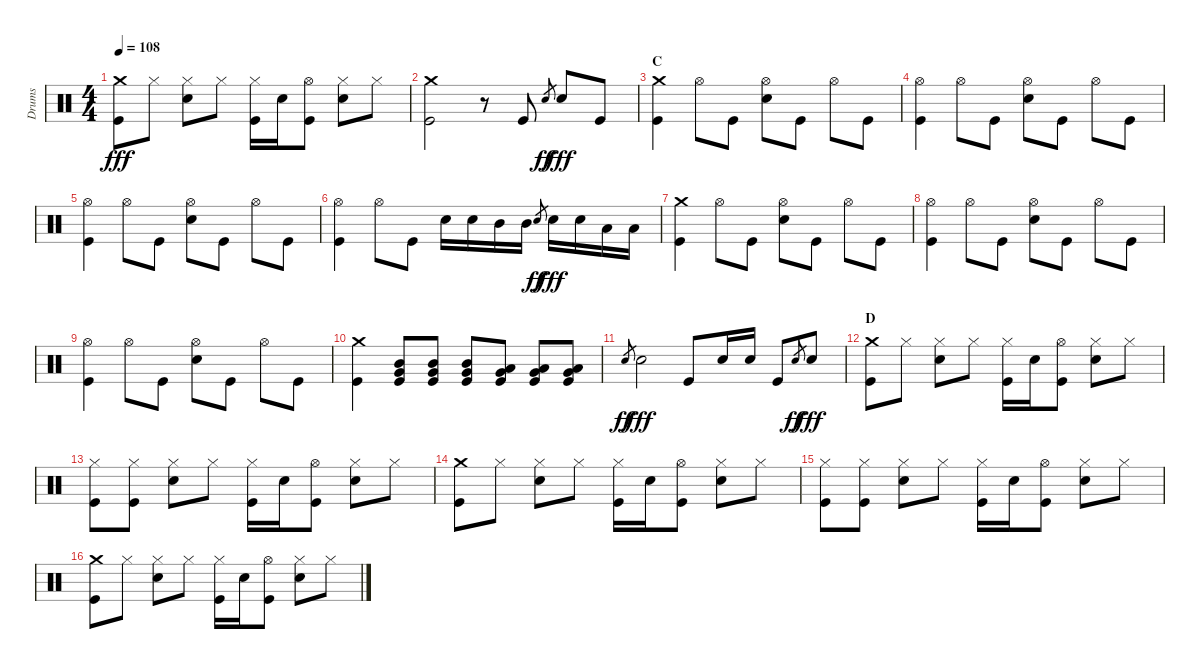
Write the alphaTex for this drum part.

\track ("Drums" "Drums") {instrument percussion}
\staff {score}
\articulation defaults
\ts (4 4)
\tempo 108
\clef neutral
\ks c
("Crash medium (hit)" "Kick (hit)").8{dy fff} "Hi-Hat (closed)".8 ("Hi-Hat (closed)" "Snare (hit) 2").8 "Hi-Hat (closed)".8 ("Hi-Hat (closed)" "Kick (hit)").16 "Snare (hit) 2".16 ("Hi-Hat (open)" "Kick (hit)").8 ("Hi-Hat (closed)" "Snare (hit) 2").8 "Hi-Hat (closed)".8 |
("Crash medium (hit)" "Kick (hit)").2 r.8 "Kick (hit)".8 "Snare (hit)".8{gr dy ff} "Snare (hit) 2".8{dy fff} "Kick (hit)".8 |
\section ("" "C")
("Crash medium (hit)" "Kick (hit)").4 "Hi-Hat (open)".8 "Kick (hit)".8 ("Hi-Hat (open)" "Snare (hit) 2").8 "Kick (hit)".8 "Hi-Hat (open)".8 "Kick (hit)".8 |
("Hi-Hat (open)" "Kick (hit)").4 "Hi-Hat (open)".8 "Kick (hit)".8 ("Hi-Hat (open)" "Snare (hit) 2").8 "Kick (hit)".8 "Hi-Hat (open)".8 "Kick (hit)".8 |
("Hi-Hat (open)" "Kick (hit)").4 "Hi-Hat (open)".8 "Kick (hit)".8 ("Hi-Hat (open)" "Snare (hit) 2").8 "Kick (hit)".8 "Hi-Hat (open)".8 "Kick (hit)".8 |
("Hi-Hat (open)" "Kick (hit)").4 "Hi-Hat (open)".8 "Kick (hit)".8 "Snare (hit) 2".16 "Snare (hit) 2".16 "Mid Tom (hit)".16 "Mid Tom (hit)".16 "Snare (hit)".8{gr dy ff} "Snare (hit) 2".16{dy fff} "Snare (hit) 2".16 "Low Tom (hit)".16 "Low Tom (hit)".16 |
("Crash medium (hit)" "Kick (hit)").4 "Hi-Hat (open)".8 "Kick (hit)".8 ("Hi-Hat (open)" "Snare (hit) 2").8 "Kick (hit)".8 "Hi-Hat (open)".8 "Kick (hit)".8 |
("Hi-Hat (open)" "Kick (hit)").4 "Hi-Hat (open)".8 "Kick (hit)".8 ("Hi-Hat (open)" "Snare (hit) 2").8 "Kick (hit)".8 "Hi-Hat (open)".8 "Kick (hit)".8 |
("Hi-Hat (open)" "Kick (hit)").4 "Hi-Hat (open)".8 "Kick (hit)".8 ("Hi-Hat (open)" "Snare (hit) 2").8 "Kick (hit)".8 "Hi-Hat (open)".8 "Kick (hit)".8 |
("Crash medium (hit)" "Kick (hit)").4 ("Mid Tom (hit)" "Very Low Tom (hit)" "Kick (hit)").8 ("Mid Tom (hit)" "Very Low Tom (hit)" "Kick (hit)").8 ("Mid Tom (hit)" "Very Low Tom (hit)" "Kick (hit)").8 ("Low Tom (hit)" "Very Low Tom (hit)" "Kick (hit)").8 ("Low Tom (hit)" "Very Low Tom (hit)" "Kick (hit)").8 ("Low Tom (hit)" "Very Low Tom (hit)" "Kick (hit)").8 |
"Snare (hit)".8{gr dy ff} "Snare (hit) 2".2{dy fff} "Kick (hit)".8 "Snare (hit) 2".16 "Snare (hit) 2".16 "Kick (hit)".8 "Snare (hit)".8{gr dy ff} "Snare (hit) 2".8{dy fff} |
\section ("" "D")
("Crash medium (hit)" "Kick (hit)").8 "Hi-Hat (closed)".8 ("Hi-Hat (closed)" "Snare (hit) 2").8 "Hi-Hat (closed)".8 ("Hi-Hat (closed)" "Kick (hit)").16 "Snare (hit) 2".16 ("Hi-Hat (open)" "Kick (hit)").8 ("Hi-Hat (closed)" "Snare (hit) 2").8 "Hi-Hat (closed)".8 |
("Hi-Hat (closed)" "Kick (hit)").8 ("Hi-Hat (closed)" "Kick (hit)").8 ("Hi-Hat (closed)" "Snare (hit) 2").8 "Hi-Hat (closed)".8 ("Hi-Hat (closed)" "Kick (hit)").16 "Snare (hit) 2".16 ("Hi-Hat (open)" "Kick (hit)").8 ("Hi-Hat (closed)" "Snare (hit) 2").8 "Hi-Hat (closed)".8 |
("Crash medium (hit)" "Kick (hit)").8 "Hi-Hat (closed)".8 ("Hi-Hat (closed)" "Snare (hit) 2").8 "Hi-Hat (closed)".8 ("Hi-Hat (closed)" "Kick (hit)").16 "Snare (hit) 2".16 ("Hi-Hat (open)" "Kick (hit)").8 ("Hi-Hat (closed)" "Snare (hit) 2").8 "Hi-Hat (closed)".8 |
("Hi-Hat (closed)" "Kick (hit)").8 ("Hi-Hat (closed)" "Kick (hit)").8 ("Hi-Hat (closed)" "Snare (hit) 2").8 "Hi-Hat (closed)".8 ("Hi-Hat (closed)" "Kick (hit)").16 "Snare (hit) 2".16 ("Hi-Hat (open)" "Kick (hit)").8 ("Hi-Hat (closed)" "Snare (hit) 2").8 "Hi-Hat (closed)".8 |
("Crash medium (hit)" "Kick (hit)").8 "Hi-Hat (closed)".8 ("Hi-Hat (closed)" "Snare (hit) 2").8 "Hi-Hat (closed)".8 ("Hi-Hat (closed)" "Kick (hit)").16 "Snare (hit) 2".16 ("Hi-Hat (open)" "Kick (hit)").8 ("Hi-Hat (closed)" "Snare (hit) 2").8 "Hi-Hat (closed)".8
